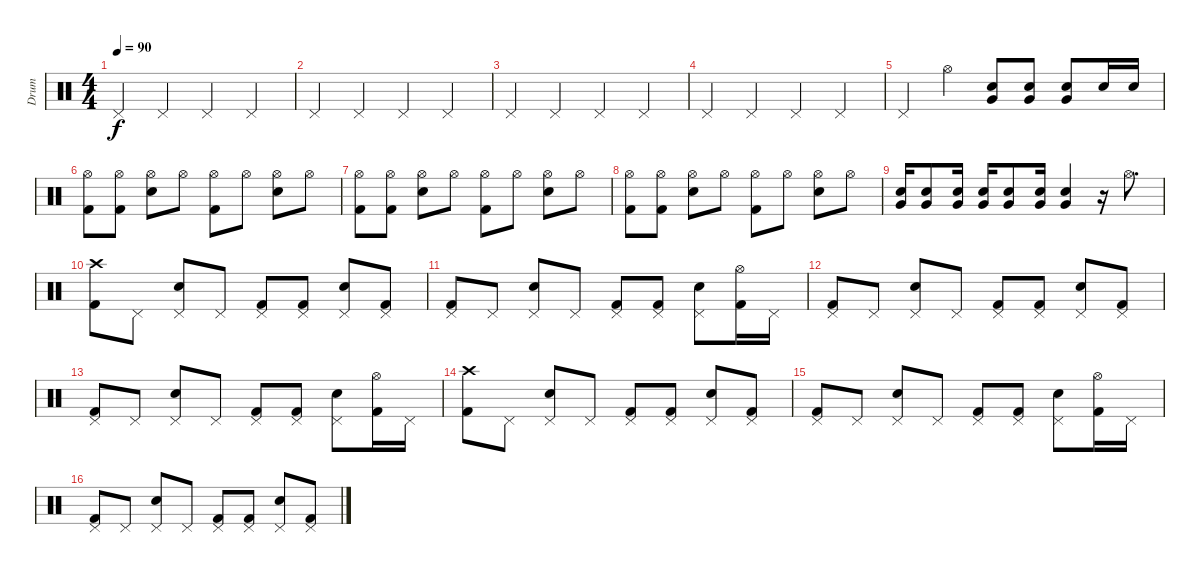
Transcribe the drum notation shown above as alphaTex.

\track ("Drum" "Drum") {instrument percussion}
\staff {score}
\articulation defaults
\ts (4 4)
\tempo 90
\clef neutral
\ks c "Pedal Hi-Hat (hit)".4{dy f} "Pedal Hi-Hat (hit)".4 "Pedal Hi-Hat (hit)".4 "Pedal Hi-Hat (hit)".4
|
"Pedal Hi-Hat (hit)".4 "Pedal Hi-Hat (hit)".4 "Pedal Hi-Hat (hit)".4 "Pedal Hi-Hat (hit)".4 |
"Pedal Hi-Hat (hit)".4 "Pedal Hi-Hat (hit)".4 "Pedal Hi-Hat (hit)".4 "Pedal Hi-Hat (hit)".4 |
"Pedal Hi-Hat (hit)".4 "Pedal Hi-Hat (hit)".4 "Pedal Hi-Hat (hit)".4 "Pedal Hi-Hat (hit)".4 |
"Pedal Hi-Hat (hit)".4 "Hi-Hat (open)".4 ("Electric Snare (hit)" "Very Low Tom (hit)").8 ("Electric Snare (hit)" "Very Low Tom (hit)").8 ("Electric Snare (hit)" "Very Low Tom (hit)").8 "Electric Snare (hit)".16 "Electric Snare (hit)".16 |
("Hi-Hat (open)" "Kick (hit) 2").8 ("Hi-Hat (open)" "Kick (hit) 2").8 ("Hi-Hat (open)" "Electric Snare (hit)").8 "Hi-Hat (open)".8 ("Hi-Hat (open)" "Kick (hit) 2").8 "Hi-Hat (open)".8 ("Hi-Hat (open)" "Electric Snare (hit)").8 "Hi-Hat (open)".8 |
("Hi-Hat (open)" "Kick (hit) 2").8 ("Hi-Hat (open)" "Kick (hit) 2").8 ("Hi-Hat (open)" "Electric Snare (hit)").8 "Hi-Hat (open)".8 ("Hi-Hat (open)" "Kick (hit) 2").8 "Hi-Hat (open)".8 ("Hi-Hat (open)" "Electric Snare (hit)").8 "Hi-Hat (open)".8 |
("Hi-Hat (open)" "Kick (hit) 2").8 ("Hi-Hat (open)" "Kick (hit) 2").8 ("Hi-Hat (open)" "Electric Snare (hit)").8 "Hi-Hat (open)".8 ("Hi-Hat (open)" "Kick (hit) 2").8 "Hi-Hat (open)".8 ("Hi-Hat (open)" "Electric Snare (hit)").8 "Hi-Hat (open)".8 |
("Electric Snare (hit)" "Very Low Tom (hit)").16 ("Electric Snare (hit)" "Very Low Tom (hit)").8 ("Electric Snare (hit)" "Very Low Tom (hit)").16 ("Electric Snare (hit)" "Very Low Tom (hit)").16 ("Electric Snare (hit)" "Very Low Tom (hit)").8 ("Electric Snare (hit)" "Very Low Tom (hit)").16 ("Electric Snare (hit)" "Very Low Tom (hit)").4 r.16 "Hi-Hat (open)".8{d} |
\ks aminor
("Crash high (hit)" "Kick (hit) 2").8 "Pedal Hi-Hat (hit)".8 ("Pedal Hi-Hat (hit)" "Electric Snare (hit)").8 "Pedal Hi-Hat (hit)".8 ("Pedal Hi-Hat (hit)" "Kick (hit) 2").8 ("Pedal Hi-Hat (hit)" "Kick (hit) 2").8 ("Pedal Hi-Hat (hit)" "Electric Snare (hit)").8 ("Pedal Hi-Hat (hit)" "Kick (hit) 2").8 |
("Pedal Hi-Hat (hit)" "Kick (hit) 2").8 "Pedal Hi-Hat (hit)".8 ("Pedal Hi-Hat (hit)" "Electric Snare (hit)").8 "Pedal Hi-Hat (hit)".8 ("Pedal Hi-Hat (hit)" "Kick (hit) 2").8 ("Pedal Hi-Hat (hit)" "Kick (hit) 2").8 ("Pedal Hi-Hat (hit)" "Electric Snare (hit)").8 ("Hi-Hat (open)" "Kick (hit) 2").16 "Pedal Hi-Hat (hit)".16 |
("Pedal Hi-Hat (hit)" "Kick (hit) 2").8 "Pedal Hi-Hat (hit)".8 ("Pedal Hi-Hat (hit)" "Electric Snare (hit)").8 "Pedal Hi-Hat (hit)".8 ("Pedal Hi-Hat (hit)" "Kick (hit) 2").8 ("Pedal Hi-Hat (hit)" "Kick (hit) 2").8 ("Pedal Hi-Hat (hit)" "Electric Snare (hit)").8 ("Pedal Hi-Hat (hit)" "Kick (hit) 2").8 |
("Pedal Hi-Hat (hit)" "Kick (hit) 2").8 "Pedal Hi-Hat (hit)".8 ("Pedal Hi-Hat (hit)" "Electric Snare (hit)").8 "Pedal Hi-Hat (hit)".8 ("Pedal Hi-Hat (hit)" "Kick (hit) 2").8 ("Pedal Hi-Hat (hit)" "Kick (hit) 2").8 ("Pedal Hi-Hat (hit)" "Electric Snare (hit)").8 ("Hi-Hat (open)" "Kick (hit) 2").16 "Pedal Hi-Hat (hit)".16 |
("Crash high (hit)" "Kick (hit) 2").8 "Pedal Hi-Hat (hit)".8 ("Pedal Hi-Hat (hit)" "Electric Snare (hit)").8 "Pedal Hi-Hat (hit)".8 ("Pedal Hi-Hat (hit)" "Kick (hit) 2").8 ("Pedal Hi-Hat (hit)" "Kick (hit) 2").8 ("Pedal Hi-Hat (hit)" "Electric Snare (hit)").8 ("Pedal Hi-Hat (hit)" "Kick (hit) 2").8 |
("Pedal Hi-Hat (hit)" "Kick (hit) 2").8 "Pedal Hi-Hat (hit)".8 ("Pedal Hi-Hat (hit)" "Electric Snare (hit)").8 "Pedal Hi-Hat (hit)".8 ("Pedal Hi-Hat (hit)" "Kick (hit) 2").8 ("Pedal Hi-Hat (hit)" "Kick (hit) 2").8 ("Pedal Hi-Hat (hit)" "Electric Snare (hit)").8 ("Hi-Hat (open)" "Kick (hit) 2").16 "Pedal Hi-Hat (hit)".16 |
("Pedal Hi-Hat (hit)" "Kick (hit) 2").8 "Pedal Hi-Hat (hit)".8 ("Pedal Hi-Hat (hit)" "Electric Snare (hit)").8 "Pedal Hi-Hat (hit)".8 ("Pedal Hi-Hat (hit)" "Kick (hit) 2").8 ("Pedal Hi-Hat (hit)" "Kick (hit) 2").8 ("Pedal Hi-Hat (hit)" "Electric Snare (hit)").8 ("Pedal Hi-Hat (hit)" "Kick (hit) 2").8
